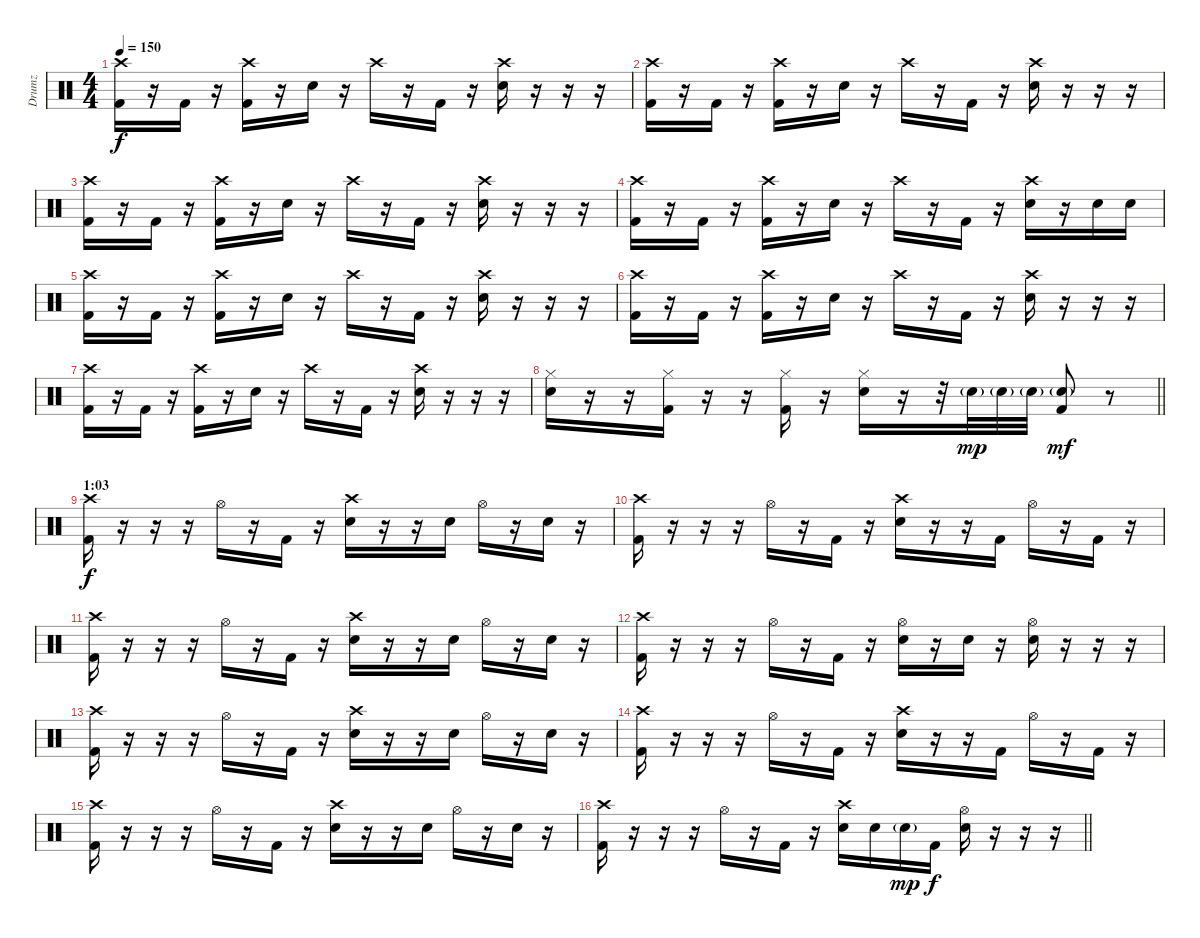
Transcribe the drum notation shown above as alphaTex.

\track ("Drumz" "Drumz") {instrument percussion}
\staff {score}
\articulation defaults
\ts (4 4)
\tempo 150
\clef neutral
\ks c
("Crash high (hit)" "Kick (hit) 2").16{dy f} r.16 "Kick (hit) 2".16 r.16 ("Crash high (hit)" "Kick (hit) 2").16 r.16 "Electric Snare (hit)".16 r.16 "Crash high (hit)".16 r.16 "Kick (hit) 2".16 r.16 ("Crash high (hit)" "Electric Snare (hit)").16 r.16 r.16 r.16 |
("Crash high (hit)" "Kick (hit) 2").16 r.16 "Kick (hit) 2".16 r.16 ("Crash high (hit)" "Kick (hit) 2").16 r.16 "Electric Snare (hit)".16 r.16 "Crash high (hit)".16 r.16 "Kick (hit) 2".16 r.16 ("Crash high (hit)" "Electric Snare (hit)").16 r.16 r.16 r.16 |
("Crash high (hit)" "Kick (hit) 2").16 r.16 "Kick (hit) 2".16 r.16 ("Crash high (hit)" "Kick (hit) 2").16 r.16 "Electric Snare (hit)".16 r.16 "Crash high (hit)".16 r.16 "Kick (hit) 2".16 r.16 ("Crash high (hit)" "Electric Snare (hit)").16 r.16 r.16 r.16 |
("Crash high (hit)" "Kick (hit) 2").16 r.16 "Kick (hit) 2".16 r.16 ("Crash high (hit)" "Kick (hit) 2").16 r.16 "Electric Snare (hit)".16 r.16 "Crash high (hit)".16 r.16 "Kick (hit) 2".16 r.16 ("Crash high (hit)" "Electric Snare (hit)").16 r.16 "Electric Snare (hit)".16 "Electric Snare (hit)".16 |
("Crash high (hit)" "Kick (hit) 2").16 r.16 "Kick (hit) 2".16 r.16 ("Crash high (hit)" "Kick (hit) 2").16 r.16 "Electric Snare (hit)".16 r.16 "Crash high (hit)".16 r.16 "Kick (hit) 2".16 r.16 ("Crash high (hit)" "Electric Snare (hit)").16 r.16 r.16 r.16 |
("Crash high (hit)" "Kick (hit) 2").16 r.16 "Kick (hit) 2".16 r.16 ("Crash high (hit)" "Kick (hit) 2").16 r.16 "Electric Snare (hit)".16 r.16 "Crash high (hit)".16 r.16 "Kick (hit) 2".16 r.16 ("Crash high (hit)" "Electric Snare (hit)").16 r.16 r.16 r.16 |
("Crash high (hit)" "Kick (hit) 2").16 r.16 "Kick (hit) 2".16 r.16 ("Crash high (hit)" "Kick (hit) 2").16 r.16 "Electric Snare (hit)".16 r.16 "Crash high (hit)".16 r.16 "Kick (hit) 2".16 r.16 ("Crash high (hit)" "Electric Snare (hit)").16 r.16 r.16 r.16 |
\barLineRight lightlight
("Hi-Hat (closed)" "Electric Snare (hit)").16 r.16 r.16 ("Hi-Hat (closed)" "Kick (hit) 2").16 r.16 r.16 ("Hi-Hat (closed)" "Kick (hit) 2").16 r.16 ("Hi-Hat (closed)" "Electric Snare (hit)").16 r.16 r.32 "Electric Snare (hit)"{g}.32{dy mp} "Electric Snare (hit)"{g}.32 "Electric Snare (hit)"{g}.32 ("Electric Snare (hit)"{g} "Kick (hit) 2").8{dy mf} r.8 |
\section ("" "1:03")
("Crash high (hit)" "Kick (hit) 2").16{dy f} r.16 r.16 r.16 "Hi-Hat (open)".16 r.16 "Kick (hit) 2".16 r.16 ("Crash high (hit)" "Electric Snare (hit)").16 r.16 r.16 "Electric Snare (hit)".16 "Hi-Hat (open)".16 r.16 "Electric Snare (hit)".16 r.16 |
("Crash high (hit)" "Kick (hit) 2").16 r.16 r.16 r.16 "Hi-Hat (open)".16 r.16 "Kick (hit) 2".16 r.16 ("Crash high (hit)" "Electric Snare (hit)").16 r.16 r.16 "Kick (hit) 2".16 "Hi-Hat (open)".16 r.16 "Kick (hit) 2".16 r.16 |
("Crash high (hit)" "Kick (hit) 2").16 r.16 r.16 r.16 "Hi-Hat (open)".16 r.16 "Kick (hit) 2".16 r.16 ("Crash high (hit)" "Electric Snare (hit)").16 r.16 r.16 "Electric Snare (hit)".16 "Hi-Hat (open)".16 r.16 "Electric Snare (hit)".16 r.16 |
("Crash high (hit)" "Kick (hit) 2").16 r.16 r.16 r.16 "Hi-Hat (open)".16 r.16 "Kick (hit) 2".16 r.16 ("Hi-Hat (open)" "Electric Snare (hit)").16 r.16 "Electric Snare (hit)".16 r.16 ("Hi-Hat (open)" "Electric Snare (hit)").16 r.16 r.16 r.16 |
("Crash high (hit)" "Kick (hit) 2").16 r.16 r.16 r.16 "Hi-Hat (open)".16 r.16 "Kick (hit) 2".16 r.16 ("Crash high (hit)" "Electric Snare (hit)").16 r.16 r.16 "Electric Snare (hit)".16 "Hi-Hat (open)".16 r.16 "Electric Snare (hit)".16 r.16 |
("Crash high (hit)" "Kick (hit) 2").16 r.16 r.16 r.16 "Hi-Hat (open)".16 r.16 "Kick (hit) 2".16 r.16 ("Crash high (hit)" "Electric Snare (hit)").16 r.16 r.16 "Kick (hit) 2".16 "Hi-Hat (open)".16 r.16 "Kick (hit) 2".16 r.16 |
("Crash high (hit)" "Kick (hit) 2").16 r.16 r.16 r.16 "Hi-Hat (open)".16 r.16 "Kick (hit) 2".16 r.16 ("Crash high (hit)" "Electric Snare (hit)").16 r.16 r.16 "Electric Snare (hit)".16 "Hi-Hat (open)".16 r.16 "Electric Snare (hit)".16 r.16 |
\barLineRight lightlight
("Crash high (hit)" "Kick (hit) 2").16 r.16 r.16 r.16 "Hi-Hat (open)".16 r.16 "Kick (hit) 2".16 r.16 ("Crash high (hit)" "Electric Snare (hit)").16 "Electric Snare (hit)".16 "Electric Snare (hit)"{g}.16{dy mp} "Kick (hit) 2".16{dy f} ("Hi-Hat (open)" "Electric Snare (hit)").16 r.16 r.16 r.16
